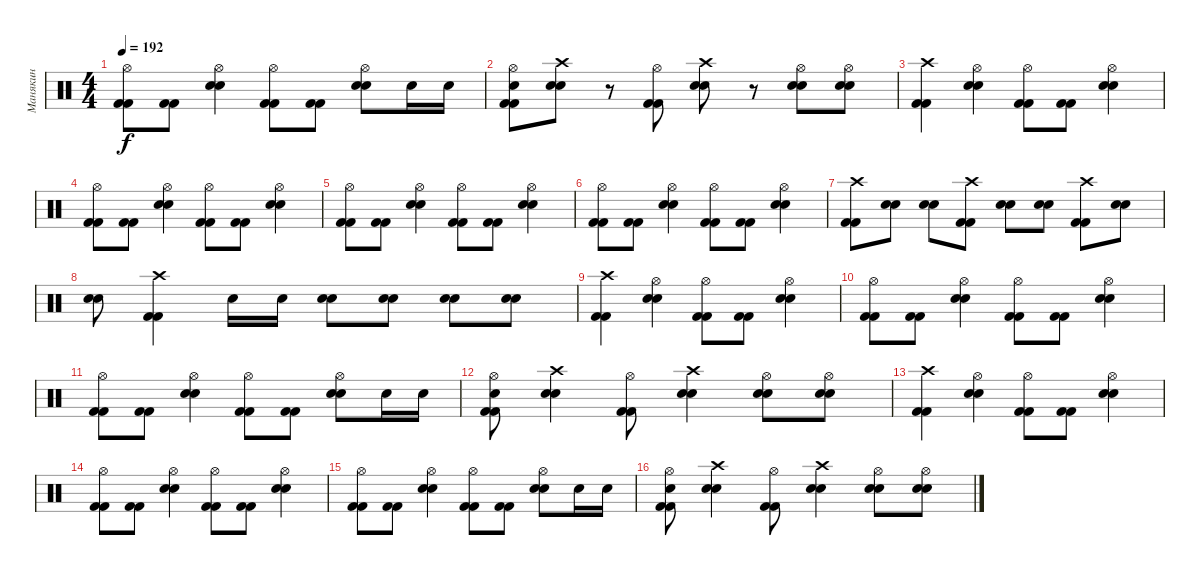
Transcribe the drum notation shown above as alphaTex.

\track ("Манякин" "Манякин") {instrument percussion}
\staff {score}
\articulation defaults
\ts (4 4)
\tempo 192
\clef neutral
\ks c
("Hi-Hat (open)" "Kick (hit) 2" "Kick (hit) 2").8{dy f} ("Kick (hit) 2" "Kick (hit) 2").8 ("Hi-Hat (open)" "Electric Snare (hit)" "Electric Snare (hit)").4 ("Hi-Hat (open)" "Kick (hit) 2" "Kick (hit) 2").8 ("Kick (hit) 2" "Kick (hit) 2").8 ("Hi-Hat (open)" "Electric Snare (hit)" "Electric Snare (hit)").8 "Electric Snare (hit)".16 "Electric Snare (hit)".16 |
("Hi-Hat (open)" "Electric Snare (hit)" "Kick (hit) 2" "Kick (hit) 2").8 ("Crash high (hit)" "Electric Snare (hit)" "Electric Snare (hit)").8 r.8 ("Hi-Hat (open)" "Kick (hit) 2" "Kick (hit) 2").8 ("Crash high (hit)" "Electric Snare (hit)" "Electric Snare (hit)").8 r.8 ("Hi-Hat (open)" "Electric Snare (hit)" "Electric Snare (hit)").8 ("Hi-Hat (open)" "Electric Snare (hit)" "Electric Snare (hit)").8 |
("Crash high (hit)" "Kick (hit) 2" "Kick (hit) 2").4 ("Hi-Hat (open)" "Electric Snare (hit)" "Electric Snare (hit)").4 ("Hi-Hat (open)" "Kick (hit) 2" "Kick (hit) 2").8 ("Kick (hit) 2" "Kick (hit) 2").8 ("Hi-Hat (open)" "Electric Snare (hit)" "Electric Snare (hit)").4 |
("Hi-Hat (open)" "Kick (hit) 2" "Kick (hit) 2").8 ("Kick (hit) 2" "Kick (hit) 2").8 ("Hi-Hat (open)" "Electric Snare (hit)" "Electric Snare (hit)").4 ("Hi-Hat (open)" "Kick (hit) 2" "Kick (hit) 2").8 ("Kick (hit) 2" "Kick (hit) 2").8 ("Hi-Hat (open)" "Electric Snare (hit)" "Electric Snare (hit)").4 |
("Hi-Hat (open)" "Kick (hit) 2" "Kick (hit) 2").8 ("Kick (hit) 2" "Kick (hit) 2").8 ("Hi-Hat (open)" "Electric Snare (hit)" "Electric Snare (hit)").4 ("Hi-Hat (open)" "Kick (hit) 2" "Kick (hit) 2").8 ("Kick (hit) 2" "Kick (hit) 2").8 ("Hi-Hat (open)" "Electric Snare (hit)" "Electric Snare (hit)").4 |
("Hi-Hat (open)" "Kick (hit) 2" "Kick (hit) 2").8 ("Kick (hit) 2" "Kick (hit) 2").8 ("Hi-Hat (open)" "Electric Snare (hit)" "Electric Snare (hit)").4 ("Hi-Hat (open)" "Kick (hit) 2" "Kick (hit) 2").8 ("Kick (hit) 2" "Kick (hit) 2").8 ("Hi-Hat (open)" "Electric Snare (hit)" "Electric Snare (hit)").4 |
("Crash high (hit)" "Kick (hit) 2" "Kick (hit) 2").8 ("Electric Snare (hit)" "Electric Snare (hit)").8 ("Electric Snare (hit)" "Electric Snare (hit)").8 ("Crash high (hit)" "Kick (hit) 2" "Kick (hit) 2").8 ("Electric Snare (hit)" "Electric Snare (hit)").8 ("Electric Snare (hit)" "Electric Snare (hit)").8 ("Crash high (hit)" "Kick (hit) 2" "Kick (hit) 2").8 ("Electric Snare (hit)" "Electric Snare (hit)").8 |
("Electric Snare (hit)" "Electric Snare (hit)").8 ("Crash high (hit)" "Kick (hit) 2" "Kick (hit) 2").4 "Electric Snare (hit)".16 "Electric Snare (hit)".16 ("Electric Snare (hit)" "Electric Snare (hit)").8 ("Electric Snare (hit)" "Electric Snare (hit)").8 ("Electric Snare (hit)" "Electric Snare (hit)").8 ("Electric Snare (hit)" "Electric Snare (hit)").8 |
("Crash high (hit)" "Kick (hit) 2" "Kick (hit) 2").4 ("Hi-Hat (open)" "Electric Snare (hit)" "Electric Snare (hit)").4 ("Hi-Hat (open)" "Kick (hit) 2" "Kick (hit) 2").8 ("Kick (hit) 2" "Kick (hit) 2").8 ("Hi-Hat (open)" "Electric Snare (hit)" "Electric Snare (hit)").4 |
("Hi-Hat (open)" "Kick (hit) 2" "Kick (hit) 2").8 ("Kick (hit) 2" "Kick (hit) 2").8 ("Hi-Hat (open)" "Electric Snare (hit)" "Electric Snare (hit)").4 ("Hi-Hat (open)" "Kick (hit) 2" "Kick (hit) 2").8 ("Kick (hit) 2" "Kick (hit) 2").8 ("Hi-Hat (open)" "Electric Snare (hit)" "Electric Snare (hit)").4 |
("Hi-Hat (open)" "Kick (hit) 2" "Kick (hit) 2").8 ("Kick (hit) 2" "Kick (hit) 2").8 ("Hi-Hat (open)" "Electric Snare (hit)" "Electric Snare (hit)").4 ("Hi-Hat (open)" "Kick (hit) 2" "Kick (hit) 2").8 ("Kick (hit) 2" "Kick (hit) 2").8 ("Hi-Hat (open)" "Electric Snare (hit)" "Electric Snare (hit)").8 "Electric Snare (hit)".16 "Electric Snare (hit)".16 |
("Hi-Hat (open)" "Electric Snare (hit)" "Kick (hit) 2" "Kick (hit) 2").8 ("Crash high (hit)" "Electric Snare (hit)" "Electric Snare (hit)").4 ("Hi-Hat (open)" "Kick (hit) 2" "Kick (hit) 2").8 ("Crash high (hit)" "Electric Snare (hit)" "Electric Snare (hit)").4 ("Hi-Hat (open)" "Electric Snare (hit)" "Electric Snare (hit)").8 ("Hi-Hat (open)" "Electric Snare (hit)" "Electric Snare (hit)").8 |
("Crash high (hit)" "Kick (hit) 2" "Kick (hit) 2").4 ("Hi-Hat (open)" "Electric Snare (hit)" "Electric Snare (hit)").4 ("Hi-Hat (open)" "Kick (hit) 2" "Kick (hit) 2").8 ("Kick (hit) 2" "Kick (hit) 2").8 ("Hi-Hat (open)" "Electric Snare (hit)" "Electric Snare (hit)").4 |
("Hi-Hat (open)" "Kick (hit) 2" "Kick (hit) 2").8 ("Kick (hit) 2" "Kick (hit) 2").8 ("Hi-Hat (open)" "Electric Snare (hit)" "Electric Snare (hit)").4 ("Hi-Hat (open)" "Kick (hit) 2" "Kick (hit) 2").8 ("Kick (hit) 2" "Kick (hit) 2").8 ("Hi-Hat (open)" "Electric Snare (hit)" "Electric Snare (hit)").4 |
("Hi-Hat (open)" "Kick (hit) 2" "Kick (hit) 2").8 ("Kick (hit) 2" "Kick (hit) 2").8 ("Hi-Hat (open)" "Electric Snare (hit)" "Electric Snare (hit)").4 ("Hi-Hat (open)" "Kick (hit) 2" "Kick (hit) 2").8 ("Kick (hit) 2" "Kick (hit) 2").8 ("Hi-Hat (open)" "Electric Snare (hit)" "Electric Snare (hit)").8 "Electric Snare (hit)".16 "Electric Snare (hit)".16 |
("Hi-Hat (open)" "Electric Snare (hit)" "Kick (hit) 2" "Kick (hit) 2").8 ("Crash high (hit)" "Electric Snare (hit)" "Electric Snare (hit)").4 ("Hi-Hat (open)" "Kick (hit) 2" "Kick (hit) 2").8 ("Crash high (hit)" "Electric Snare (hit)" "Electric Snare (hit)").4 ("Hi-Hat (open)" "Electric Snare (hit)" "Electric Snare (hit)").8 ("Hi-Hat (open)" "Electric Snare (hit)" "Electric Snare (hit)").8
